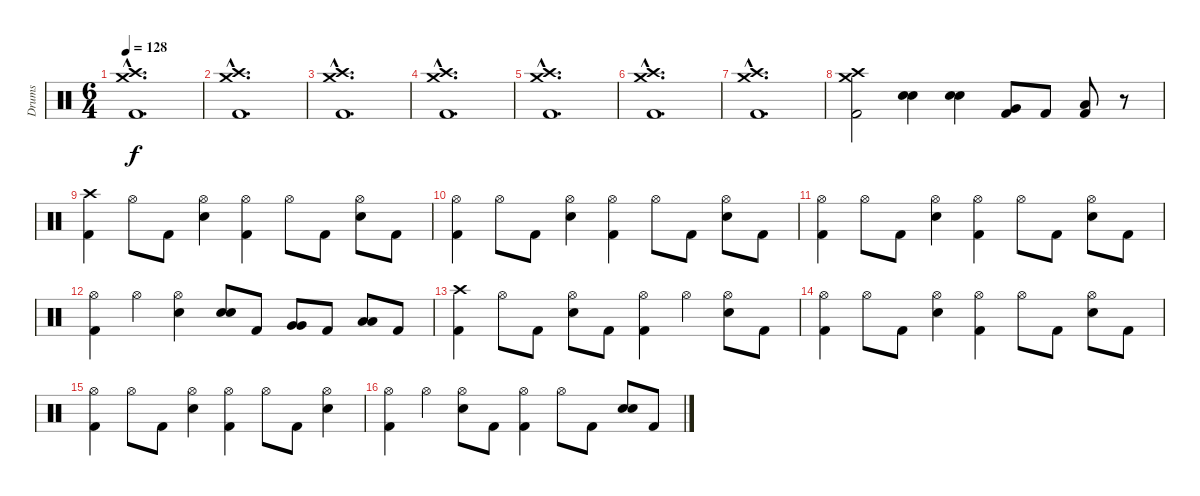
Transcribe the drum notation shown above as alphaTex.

\track ("Drums" "Drums") {instrument percussion}
\staff {score}
\articulation defaults
\ts (6 4)
\tempo 128
\clef neutral
\ks c
("Crash high (hit)"{hac} "Crash medium (hit)"{hac} "Kick (hit) 2"{hac}).1{d dy f} |
("Crash high (hit)"{hac} "Crash medium (hit)"{hac} "Kick (hit) 2"{hac}).1{d} |
("Crash high (hit)"{hac} "Crash medium (hit)"{hac} "Kick (hit) 2"{hac}).1{d} |
("Crash high (hit)"{hac} "Crash medium (hit)"{hac} "Kick (hit) 2"{hac}).1{d} |
("Crash high (hit)"{hac} "Crash medium (hit)"{hac} "Kick (hit) 2"{hac}).1{d} |
("Crash high (hit)"{hac} "Crash medium (hit)"{hac} "Kick (hit) 2"{hac}).1{d} |
("Crash high (hit)"{hac} "Crash medium (hit)"{hac} "Kick (hit) 2"{hac}).1{d} |
("Crash high (hit)" "Crash medium (hit)" "Kick (hit) 2").2 ("Electric Snare (hit)" "Electric Snare (hit)").4{bu 120} ("Electric Snare (hit)" "Electric Snare (hit)").4{bu 120} ("Very Low Tom (hit)" "Kick (hit) 2").8 "Kick (hit) 2".8 ("Low Floor Tom (hit)" "Kick (hit) 2").8 r.8 |
("Crash high (hit)" "Kick (hit) 2").4 "Hi-Hat (open)".8 "Kick (hit) 2".8 ("Hi-Hat (open)" "Electric Snare (hit)").4 ("Hi-Hat (open)" "Kick (hit) 2").4 "Hi-Hat (open)".8 "Kick (hit) 2".8 ("Hi-Hat (open)" "Electric Snare (hit)").8 "Kick (hit) 2".8 |
("Hi-Hat (open)" "Kick (hit) 2").4 "Hi-Hat (open)".8 "Kick (hit) 2".8 ("Hi-Hat (open)" "Electric Snare (hit)").4 ("Hi-Hat (open)" "Kick (hit) 2").4 "Hi-Hat (open)".8 "Kick (hit) 2".8 ("Hi-Hat (open)" "Electric Snare (hit)").8 "Kick (hit) 2".8 |
("Hi-Hat (open)" "Kick (hit) 2").4 "Hi-Hat (open)".8 "Kick (hit) 2".8 ("Hi-Hat (open)" "Electric Snare (hit)").4 ("Hi-Hat (open)" "Kick (hit) 2").4 "Hi-Hat (open)".8 "Kick (hit) 2".8 ("Hi-Hat (open)" "Electric Snare (hit)").8 "Kick (hit) 2".8 |
("Hi-Hat (open)" "Kick (hit) 2").4 "Hi-Hat (open)".4 ("Hi-Hat (open)" "Electric Snare (hit)").4 ("Electric Snare (hit)" "Electric Snare (hit)").8{bu 120} "Kick (hit) 2".8 ("Very Low Tom (hit)" "Very Low Tom (hit)").8{bu 120} "Kick (hit) 2".8 ("Low Floor Tom (hit)" "Low Floor Tom (hit)").8{bu 120} "Kick (hit) 2".8 |
("Crash high (hit)" "Kick (hit) 2").4 "Hi-Hat (open)".8 "Kick (hit) 2".8 ("Hi-Hat (open)" "Electric Snare (hit)").8 "Kick (hit) 2".8 ("Hi-Hat (open)" "Kick (hit) 2").4 "Hi-Hat (open)".4 ("Hi-Hat (open)" "Electric Snare (hit)").8 "Kick (hit) 2".8 |
("Hi-Hat (open)" "Kick (hit) 2").4 "Hi-Hat (open)".8 "Kick (hit) 2".8 ("Hi-Hat (open)" "Electric Snare (hit)").4 ("Hi-Hat (open)" "Kick (hit) 2").4 "Hi-Hat (open)".8 "Kick (hit) 2".8 ("Hi-Hat (open)" "Electric Snare (hit)").8 "Kick (hit) 2".8 |
("Hi-Hat (open)" "Kick (hit) 2").4 "Hi-Hat (open)".8 "Kick (hit) 2".8 ("Hi-Hat (open)" "Electric Snare (hit)").4 ("Hi-Hat (open)" "Kick (hit) 2").4 "Hi-Hat (open)".8 "Kick (hit) 2".8 ("Hi-Hat (open)" "Electric Snare (hit)").4 |
("Hi-Hat (open)" "Kick (hit) 2").4 "Hi-Hat (open)".4 ("Hi-Hat (open)" "Electric Snare (hit)").8 "Kick (hit) 2".8 ("Hi-Hat (open)" "Kick (hit) 2").4 "Hi-Hat (open)".8 "Kick (hit) 2".8 ("Electric Snare (hit)" "Electric Snare (hit)").8{bu 60} "Kick (hit) 2".8
